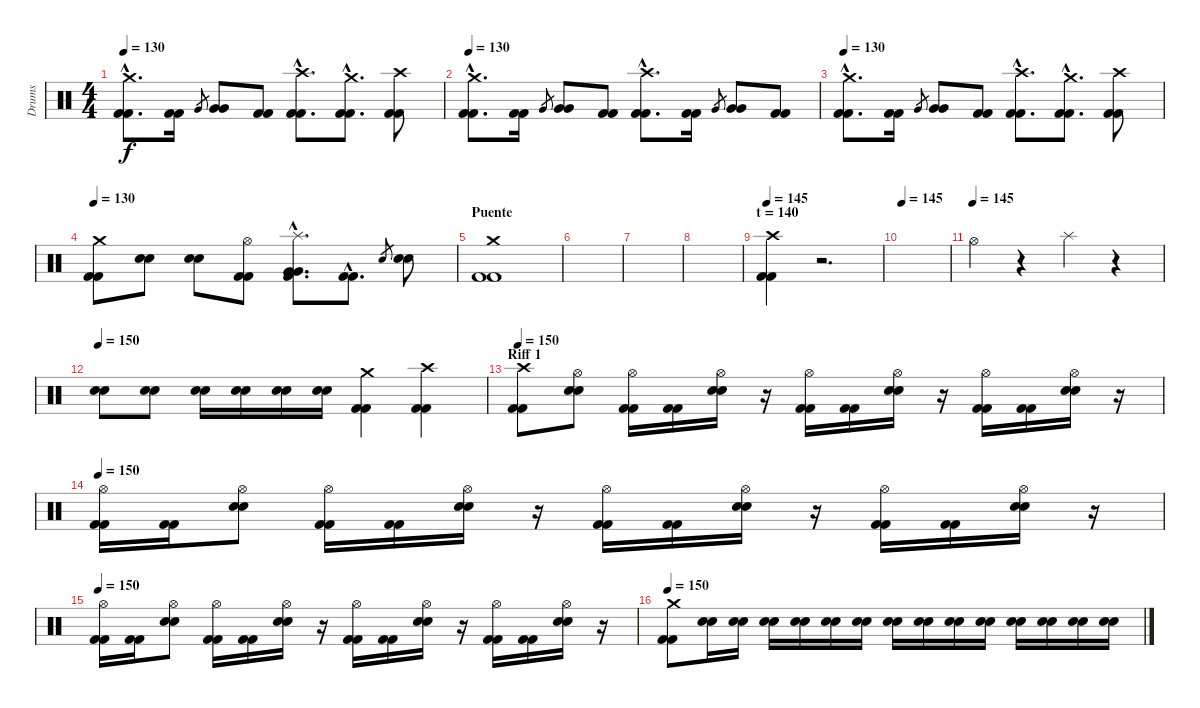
\track ("Drums" "Drums") {instrument percussion}
\staff {score}
\articulation defaults
\ts (4 4)
\tempo 130
\clef neutral
\ks c
("Crash medium (hit)"{hac} "Kick (hit) 2"{hac} "Kick (hit) 2"{hac}).8{d dy f} ("Kick (hit) 2" "Kick (hit) 2").16 "Very Low Tom (hit)".8{gr} ("Very Low Tom (hit)" "Very Low Tom (hit)").8 ("Kick (hit) 2" "Kick (hit) 2").8 ("Crash high (hit)"{hac} "Kick (hit) 2"{hac} "Kick (hit) 2"{hac}).8{d} ("Crash medium (hit)"{hac} "Kick (hit) 2"{hac} "Kick (hit) 2"{hac}).8{d} ("Crash high (hit)" "Kick (hit) 2" "Kick (hit) 2").8 |
\tempo 130
("Crash medium (hit)"{hac} "Kick (hit) 2"{hac} "Kick (hit) 2"{hac}).8{d} ("Kick (hit) 2" "Kick (hit) 2").16 "Very Low Tom (hit)".8{gr} ("Very Low Tom (hit)" "Very Low Tom (hit)").8 ("Kick (hit) 2" "Kick (hit) 2").8 ("Crash high (hit)"{hac} "Kick (hit) 2"{hac} "Kick (hit) 2"{hac}).8{d} ("Kick (hit) 2" "Kick (hit) 2").16 "Very Low Tom (hit)".8{gr} ("Very Low Tom (hit)" "Very Low Tom (hit)").8 ("Kick (hit) 2" "Kick (hit) 2").8 |
\tempo 130
("Crash medium (hit)"{hac} "Kick (hit) 2"{hac} "Kick (hit) 2"{hac}).8{d} ("Kick (hit) 2" "Kick (hit) 2").16 "Very Low Tom (hit)".8{gr} ("Very Low Tom (hit)" "Very Low Tom (hit)").8 ("Kick (hit) 2" "Kick (hit) 2").8 ("Crash high (hit)"{hac} "Kick (hit) 2"{hac} "Kick (hit) 2"{hac}).8{d} ("Crash medium (hit)"{hac} "Kick (hit) 2"{hac} "Kick (hit) 2"{hac}).8{d} ("Crash high (hit)" "Kick (hit) 2" "Kick (hit) 2").8 |
\tempo 130
("Crash medium (hit)" "Kick (hit) 2" "Kick (hit) 2").8 ("Snare (hit) 2" "Snare (hit) 2").8 ("Snare (hit) 2" "Snare (hit) 2").8 ("Hi-Hat (open)" "Kick (hit) 2" "Kick (hit) 2").8 ("Splash (hit)"{hac} "Very Low Tom (hit)"{hac} "Very Low Tom (hit)"{hac} "Kick (hit) 2"{hac}).8{d} ("Kick (hit) 2"{hac} "Kick (hit) 2"{hac}).8{d} "Snare (hit) 2".8{gr} ("Snare (hit) 2" "Snare (hit) 2").8 |
\section ("" "Puente")
("Crash medium (hit)" "Kick (hit) 2" "Kick (hit) 2").1 |
|
|
|
\section ("" "t = 140")
\tempo 145
("Crash high (hit)" "Kick (hit) 2" "Kick (hit) 2").4 r.2{d} |
\tempo 145
|
\tempo (145)
"Hi-Hat (open)".4 r.4 "Splash (hit)".4 r.4 |
\tempo 150
("Snare (hit) 2" "Snare (hit) 2").8 ("Snare (hit) 2" "Snare (hit) 2").8 ("Snare (hit) 2" "Snare (hit) 2").16 ("Snare (hit) 2" "Snare (hit) 2").16 ("Snare (hit) 2" "Snare (hit) 2").16 ("Snare (hit) 2" "Snare (hit) 2").16 ("Crash medium (hit)" "Kick (hit) 2" "Kick (hit) 2").4 ("Crash high (hit)" "Kick (hit) 2" "Kick (hit) 2").4 |
\section ("" "Riff 1")
\tempo 150
("Crash high (hit)" "Kick (hit) 2" "Kick (hit) 2").8 ("Hi-Hat (open)" "Snare (hit) 2" "Snare (hit) 2").8 ("Hi-Hat (open)" "Kick (hit) 2" "Kick (hit) 2").16 ("Kick (hit) 2" "Kick (hit) 2").16 ("Hi-Hat (open)" "Snare (hit) 2" "Snare (hit) 2").16 r.16 ("Hi-Hat (open)" "Kick (hit) 2" "Kick (hit) 2").16 ("Kick (hit) 2" "Kick (hit) 2").16 ("Hi-Hat (open)" "Snare (hit) 2" "Snare (hit) 2").16 r.16 ("Hi-Hat (open)" "Kick (hit) 2" "Kick (hit) 2").16 ("Kick (hit) 2" "Kick (hit) 2").16 ("Hi-Hat (open)" "Snare (hit) 2" "Snare (hit) 2").16 r.16 |
\tempo 150
("Hi-Hat (open)" "Kick (hit) 2" "Kick (hit) 2").16 ("Kick (hit) 2" "Kick (hit) 2").16 ("Hi-Hat (open)" "Snare (hit) 2" "Snare (hit) 2").8 ("Hi-Hat (open)" "Kick (hit) 2" "Kick (hit) 2").16 ("Kick (hit) 2" "Kick (hit) 2").16 ("Hi-Hat (open)" "Snare (hit) 2" "Snare (hit) 2").16 r.16 ("Hi-Hat (open)" "Kick (hit) 2" "Kick (hit) 2").16 ("Kick (hit) 2" "Kick (hit) 2").16 ("Hi-Hat (open)" "Snare (hit) 2" "Snare (hit) 2").16 r.16 ("Hi-Hat (open)" "Kick (hit) 2" "Kick (hit) 2").16 ("Kick (hit) 2" "Kick (hit) 2").16 ("Hi-Hat (open)" "Snare (hit) 2" "Snare (hit) 2").16 r.16 |
\tempo 150
("Hi-Hat (open)" "Kick (hit) 2" "Kick (hit) 2").16 ("Kick (hit) 2" "Kick (hit) 2").16 ("Hi-Hat (open)" "Snare (hit) 2" "Snare (hit) 2").8 ("Hi-Hat (open)" "Kick (hit) 2" "Kick (hit) 2").16 ("Kick (hit) 2" "Kick (hit) 2").16 ("Hi-Hat (open)" "Snare (hit) 2" "Snare (hit) 2").16 r.16 ("Hi-Hat (open)" "Kick (hit) 2" "Kick (hit) 2").16 ("Kick (hit) 2" "Kick (hit) 2").16 ("Hi-Hat (open)" "Snare (hit) 2" "Snare (hit) 2").16 r.16 ("Hi-Hat (open)" "Kick (hit) 2" "Kick (hit) 2").16 ("Kick (hit) 2" "Kick (hit) 2").16 ("Hi-Hat (open)" "Snare (hit) 2" "Snare (hit) 2").16 r.16 |
\tempo 150
("Crash medium (hit)" "Kick (hit) 2" "Kick (hit) 2").8 ("Snare (hit) 2" "Snare (hit) 2").16 ("Snare (hit) 2" "Snare (hit) 2").16 ("Snare (hit) 2" "Snare (hit) 2").16 ("Snare (hit) 2" "Snare (hit) 2").16 ("Snare (hit) 2" "Snare (hit) 2").16 ("Snare (hit) 2" "Snare (hit) 2").16 ("Snare (hit) 2" "Snare (hit) 2").16 ("Snare (hit) 2" "Snare (hit) 2").16 ("Snare (hit) 2" "Snare (hit) 2").16 ("Snare (hit) 2" "Snare (hit) 2").16 ("Snare (hit) 2" "Snare (hit) 2").16 ("Snare (hit) 2" "Snare (hit) 2").16 ("Snare (hit) 2" "Snare (hit) 2").16 ("Snare (hit) 2" "Snare (hit) 2").16
